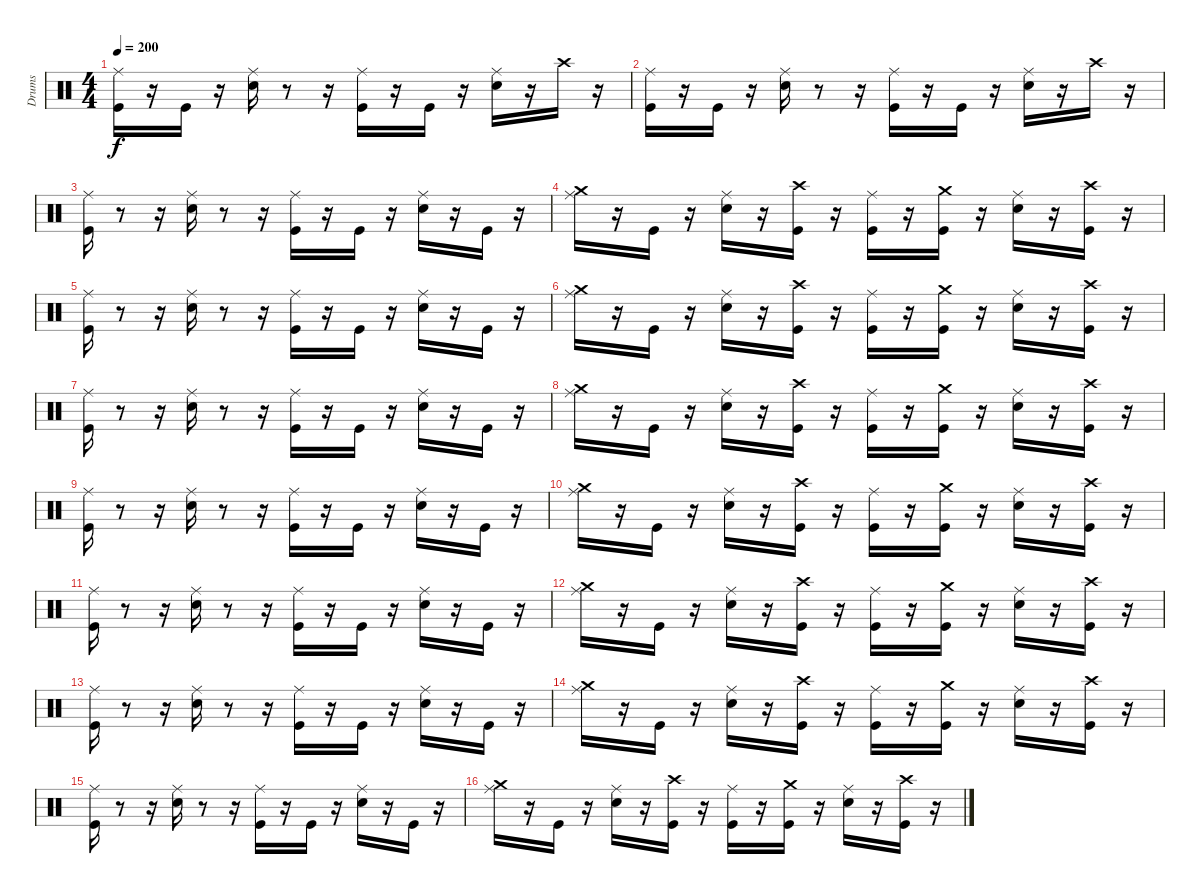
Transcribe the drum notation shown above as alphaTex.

\track ("Drums" "Drums") {instrument percussion}
\staff {score}
\articulation defaults
\ts (4 4)
\tempo 200
\clef neutral
\ks c
("Kick (hit)" "Ride (middle)").16{dy f} r.16 "Kick (hit)".16 r.16 ("Snare (hit) 2" "Ride (middle)").16 r.8 r.16 ("Ride (middle)" "Kick (hit)").16 r.16 "Kick (hit)".16 r.16 ("Snare (hit) 2" "Ride (middle)").16 r.16 "Crash high (hit)".16 r.16 |
("Kick (hit)" "Ride (middle)").16 r.16 "Kick (hit)".16 r.16 ("Snare (hit) 2" "Ride (middle)").16 r.8 r.16 ("Ride (middle)" "Kick (hit)").16 r.16 "Kick (hit)".16 r.16 ("Snare (hit) 2" "Ride (middle)").16 r.16 "Crash high (hit)".16 r.16 |
("Ride (middle)" "Kick (hit)").16 r.8 r.16 ("Ride (middle)" "Snare (hit) 2").16 r.8 r.16 ("Ride (middle)" "Kick (hit)").16 r.16 "Kick (hit)".16 r.16 ("Ride (middle)" "Snare (hit) 2").16 r.16 "Kick (hit)".16 r.16 |
("Ride (middle)" "Crash medium (hit)").16 r.16 "Kick (hit)".16 r.16 ("Ride (middle)" "Snare (hit) 2").16 r.16 ("Kick (hit)" "Crash high (hit)").16 r.16 ("Ride (middle)" "Kick (hit)").16 r.16 ("Kick (hit)" "Crash medium (hit)").16 r.16 ("Snare (hit) 2" "Ride (middle)").16 r.16 ("Kick (hit)" "Crash high (hit)").16 r.16 |
("Ride (middle)" "Kick (hit)").16 r.8 r.16 ("Ride (middle)" "Snare (hit) 2").16 r.8 r.16 ("Ride (middle)" "Kick (hit)").16 r.16 "Kick (hit)".16 r.16 ("Ride (middle)" "Snare (hit) 2").16 r.16 "Kick (hit)".16 r.16 |
("Ride (middle)" "Crash medium (hit)").16 r.16 "Kick (hit)".16 r.16 ("Ride (middle)" "Snare (hit) 2").16 r.16 ("Kick (hit)" "Crash high (hit)").16 r.16 ("Ride (middle)" "Kick (hit)").16 r.16 ("Kick (hit)" "Crash medium (hit)").16 r.16 ("Snare (hit) 2" "Ride (middle)").16 r.16 ("Kick (hit)" "Crash high (hit)").16 r.16 |
("Ride (middle)" "Kick (hit)").16 r.8 r.16 ("Ride (middle)" "Snare (hit) 2").16 r.8 r.16 ("Ride (middle)" "Kick (hit)").16 r.16 "Kick (hit)".16 r.16 ("Ride (middle)" "Snare (hit) 2").16 r.16 "Kick (hit)".16 r.16 |
("Ride (middle)" "Crash medium (hit)").16 r.16 "Kick (hit)".16 r.16 ("Ride (middle)" "Snare (hit) 2").16 r.16 ("Kick (hit)" "Crash high (hit)").16 r.16 ("Ride (middle)" "Kick (hit)").16 r.16 ("Kick (hit)" "Crash medium (hit)").16 r.16 ("Snare (hit) 2" "Ride (middle)").16 r.16 ("Kick (hit)" "Crash high (hit)").16 r.16 |
("Ride (middle)" "Kick (hit)").16 r.8 r.16 ("Ride (middle)" "Snare (hit) 2").16 r.8 r.16 ("Ride (middle)" "Kick (hit)").16 r.16 "Kick (hit)".16 r.16 ("Ride (middle)" "Snare (hit) 2").16 r.16 "Kick (hit)".16 r.16 |
("Ride (middle)" "Crash medium (hit)").16 r.16 "Kick (hit)".16 r.16 ("Ride (middle)" "Snare (hit) 2").16 r.16 ("Kick (hit)" "Crash high (hit)").16 r.16 ("Ride (middle)" "Kick (hit)").16 r.16 ("Kick (hit)" "Crash medium (hit)").16 r.16 ("Snare (hit) 2" "Ride (middle)").16 r.16 ("Kick (hit)" "Crash high (hit)").16 r.16 |
("Ride (middle)" "Kick (hit)").16 r.8 r.16 ("Ride (middle)" "Snare (hit) 2").16 r.8 r.16 ("Ride (middle)" "Kick (hit)").16 r.16 "Kick (hit)".16 r.16 ("Ride (middle)" "Snare (hit) 2").16 r.16 "Kick (hit)".16 r.16 |
("Ride (middle)" "Crash medium (hit)").16 r.16 "Kick (hit)".16 r.16 ("Ride (middle)" "Snare (hit) 2").16 r.16 ("Kick (hit)" "Crash high (hit)").16 r.16 ("Ride (middle)" "Kick (hit)").16 r.16 ("Kick (hit)" "Crash medium (hit)").16 r.16 ("Snare (hit) 2" "Ride (middle)").16 r.16 ("Crash high (hit)" "Kick (hit)").16 r.16 |
("Ride (middle)" "Kick (hit)").16 r.8 r.16 ("Ride (middle)" "Snare (hit) 2").16 r.8 r.16 ("Ride (middle)" "Kick (hit)").16 r.16 "Kick (hit)".16 r.16 ("Ride (middle)" "Snare (hit) 2").16 r.16 "Kick (hit)".16 r.16 |
("Ride (middle)" "Crash medium (hit)").16 r.16 "Kick (hit)".16 r.16 ("Ride (middle)" "Snare (hit) 2").16 r.16 ("Kick (hit)" "Crash high (hit)").16 r.16 ("Ride (middle)" "Kick (hit)").16 r.16 ("Kick (hit)" "Crash medium (hit)").16 r.16 ("Snare (hit) 2" "Ride (middle)").16 r.16 ("Kick (hit)" "Crash high (hit)").16 r.16 |
("Ride (middle)" "Kick (hit)").16 r.8 r.16 ("Ride (middle)" "Snare (hit) 2").16 r.8 r.16 ("Ride (middle)" "Kick (hit)").16 r.16 "Kick (hit)".16 r.16 ("Ride (middle)" "Snare (hit) 2").16 r.16 "Kick (hit)".16 r.16 |
("Ride (middle)" "Crash medium (hit)").16 r.16 "Kick (hit)".16 r.16 ("Ride (middle)" "Snare (hit) 2").16 r.16 ("Kick (hit)" "Crash high (hit)").16 r.16 ("Ride (middle)" "Kick (hit)").16 r.16 ("Kick (hit)" "Crash medium (hit)").16 r.16 ("Snare (hit) 2" "Ride (middle)").16 r.16 ("Kick (hit)" "Crash high (hit)").16 r.16
